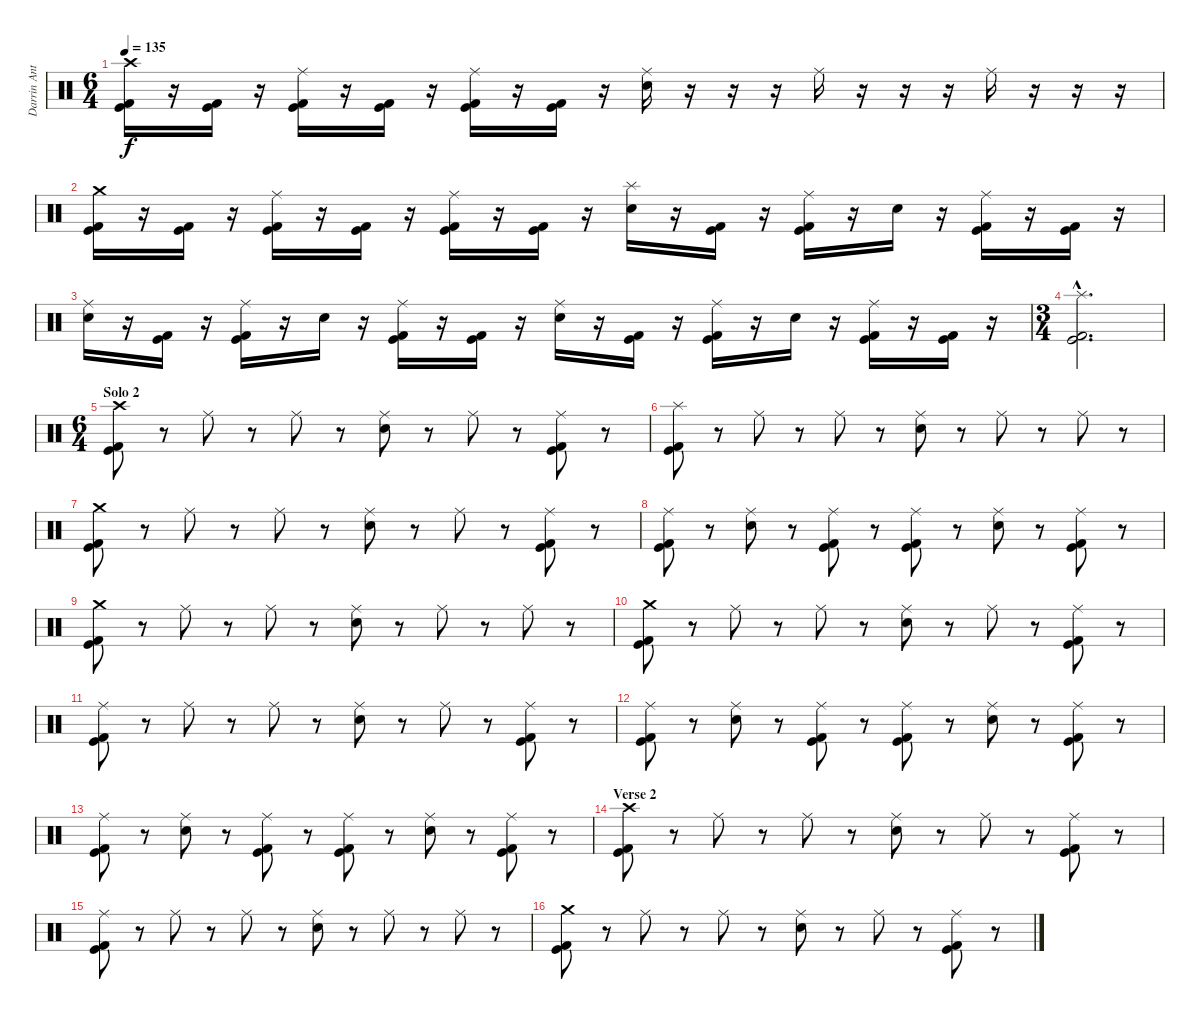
\track ("Darrin Anthony" "Darrin Ant") {instrument percussion}
\staff {score}
\articulation defaults
\ts (6 4)
\tempo 135
\clef neutral
\ks c
("Crash high (hit)" "Kick (hit)" "Kick (hit) 2").16{dy f} r.16 ("Kick (hit)" "Kick (hit) 2").16 r.16 ("Ride (middle)" "Kick (hit)" "Kick (hit) 2").16 r.16 ("Kick (hit)" "Kick (hit) 2").16 r.16 ("Ride (middle)" "Kick (hit)" "Kick (hit) 2").16 r.16 ("Kick (hit)" "Kick (hit) 2").16 r.16 ("Ride (middle)" "Electric Snare (hit)").16 r.16 r.16 r.16 "Ride (middle)".16 r.16 r.16 r.16 "Ride (middle)".16 r.16 r.16 r.16 |
("Crash medium (hit)" "Kick (hit)" "Kick (hit) 2").16 r.16 ("Kick (hit)" "Kick (hit) 2").16 r.16 ("Ride (middle)" "Kick (hit)" "Kick (hit) 2").16 r.16 ("Kick (hit)" "Kick (hit) 2").16 r.16 ("Ride (middle)" "Kick (hit)" "Kick (hit) 2").16 r.16 ("Kick (hit)" "Kick (hit) 2").16 r.16 ("Splash (hit)" "Electric Snare (hit)").16 r.16 ("Kick (hit)" "Kick (hit) 2").16 r.16 ("Ride (middle)" "Kick (hit)" "Kick (hit) 2").16 r.16 "Electric Snare (hit)".16 r.16 ("Ride (middle)" "Kick (hit)" "Kick (hit) 2").16 r.16 ("Kick (hit)" "Kick (hit) 2").16 r.16 |
("Ride (middle)" "Electric Snare (hit)").16 r.16 ("Kick (hit)" "Kick (hit) 2").16 r.16 ("Ride (middle)" "Kick (hit)" "Kick (hit) 2").16 r.16 "Electric Snare (hit)".16 r.16 ("Ride (middle)" "Kick (hit)" "Kick (hit) 2").16 r.16 ("Kick (hit)" "Kick (hit) 2").16 r.16 ("Ride (middle)" "Electric Snare (hit)").16 r.16 ("Kick (hit)" "Kick (hit) 2").16 r.16 ("Ride (middle)" "Kick (hit)" "Kick (hit) 2").16 r.16 "Electric Snare (hit)".16 r.16 ("Ride (middle)" "Kick (hit)" "Kick (hit) 2").16 r.16 ("Kick (hit)" "Kick (hit) 2").16 r.16 |
\ts (3 4)
("Splash (hit)"{hac} "Kick (hit)"{hac} "Kick (hit) 2"{hac}).2{d} |
\ts (6 4)
\section ("" "Solo 2")
("Crash high (hit)" "Kick (hit)" "Kick (hit) 2").8 r.8 "Ride (middle)".8 r.8 "Ride (middle)".8 r.8 ("Ride (middle)" "Electric Snare (hit)").8 r.8 "Ride (middle)".8 r.8 ("Ride (middle)" "Kick (hit)" "Kick (hit) 2").8 r.8 |
("Splash (hit)" "Kick (hit)" "Kick (hit) 2").8 r.8 "Ride (middle)".8 r.8 "Ride (middle)".8 r.8 ("Ride (middle)" "Electric Snare (hit)").8 r.8 "Ride (middle)".8 r.8 "Ride (middle)".8 r.8 |
("Crash medium (hit)" "Kick (hit)" "Kick (hit) 2").8 r.8 "Ride (middle)".8 r.8 "Ride (middle)".8 r.8 ("Ride (middle)" "Electric Snare (hit)").8 r.8 "Ride (middle)".8 r.8 ("Ride (middle)" "Kick (hit)" "Kick (hit) 2").8 r.8 |
("Ride (middle)" "Kick (hit)" "Kick (hit) 2").8 r.8 ("Ride (middle)" "Electric Snare (hit)").8 r.8 ("Ride (middle)" "Kick (hit)" "Kick (hit) 2").8 r.8 ("Ride (middle)" "Kick (hit)" "Kick (hit) 2").8 r.8 ("Ride (middle)" "Electric Snare (hit)").8 r.8 ("Ride (middle)" "Kick (hit)" "Kick (hit) 2").8 r.8 |
("Crash medium (hit)" "Kick (hit)" "Kick (hit) 2").8 r.8 "Ride (middle)".8 r.8 "Ride (middle)".8 r.8 ("Ride (middle)" "Electric Snare (hit)").8 r.8 "Ride (middle)".8 r.8 "Ride (middle)".8 r.8 |
("Crash medium (hit)" "Kick (hit)" "Kick (hit) 2").8 r.8 "Ride (middle)".8 r.8 "Ride (middle)".8 r.8 ("Ride (middle)" "Electric Snare (hit)").8 r.8 "Ride (middle)".8 r.8 ("Ride (middle)" "Kick (hit)" "Kick (hit) 2").8 r.8 |
("Ride (middle)" "Kick (hit)" "Kick (hit) 2").8 r.8 "Ride (middle)".8 r.8 "Ride (middle)".8 r.8 ("Ride (middle)" "Electric Snare (hit)").8 r.8 "Ride (middle)".8 r.8 ("Ride (middle)" "Kick (hit)" "Kick (hit) 2").8 r.8 |
("Ride (middle)" "Kick (hit)" "Kick (hit) 2").8 r.8 ("Ride (middle)" "Electric Snare (hit)").8 r.8 ("Ride (middle)" "Kick (hit)" "Kick (hit) 2").8 r.8 ("Ride (middle)" "Kick (hit)" "Kick (hit) 2").8 r.8 ("Ride (middle)" "Electric Snare (hit)").8 r.8 ("Ride (middle)" "Kick (hit)" "Kick (hit) 2").8 r.8 |
("Ride (middle)" "Kick (hit)" "Kick (hit) 2").8 r.8 ("Ride (middle)" "Electric Snare (hit)").8 r.8 ("Ride (middle)" "Kick (hit)" "Kick (hit) 2").8 r.8 ("Ride (middle)" "Kick (hit)" "Kick (hit) 2").8 r.8 ("Ride (middle)" "Electric Snare (hit)").8 r.8 ("Ride (middle)" "Kick (hit)" "Kick (hit) 2").8 r.8 |
\section ("" "Verse 2")
("Crash high (hit)" "Kick (hit)" "Kick (hit) 2").8 r.8 "Ride (middle)".8 r.8 "Ride (middle)".8 r.8 ("Ride (middle)" "Electric Snare (hit)").8 r.8 "Ride (middle)".8 r.8 ("Ride (middle)" "Kick (hit)" "Kick (hit) 2").8 r.8 |
("Ride (middle)" "Kick (hit)" "Kick (hit) 2").8 r.8 "Ride (middle)".8 r.8 "Ride (middle)".8 r.8 ("Ride (middle)" "Electric Snare (hit)").8 r.8 "Ride (middle)".8 r.8 "Ride (middle)".8 r.8 |
("Crash medium (hit)" "Kick (hit)" "Kick (hit) 2").8 r.8 "Ride (middle)".8 r.8 "Ride (middle)".8 r.8 ("Ride (middle)" "Electric Snare (hit)").8 r.8 "Ride (middle)".8 r.8 ("Ride (middle)" "Kick (hit)" "Kick (hit) 2").8 r.8
